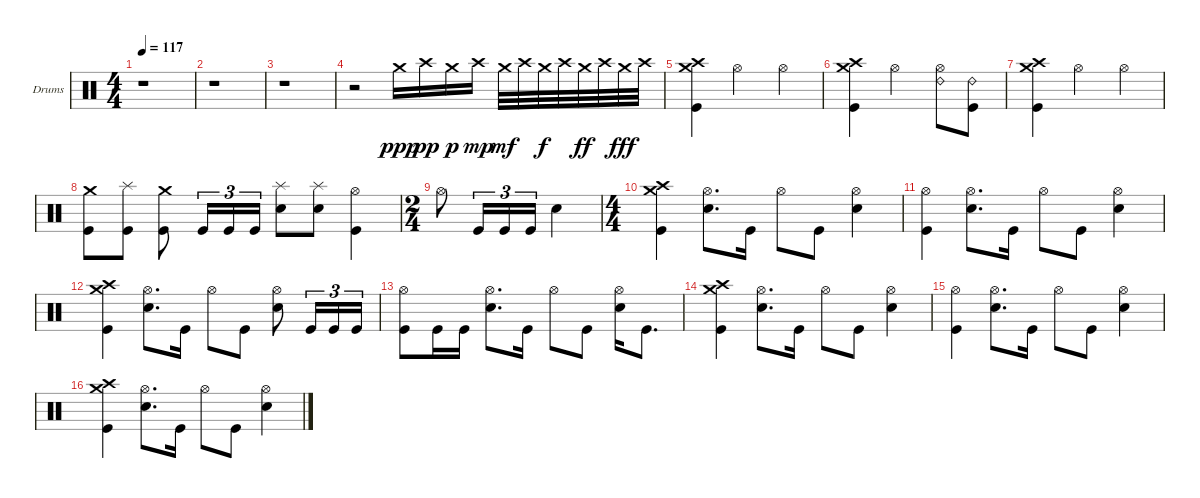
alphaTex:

\defaultSystemsLayout 4
\bracketExtendMode groupsimilarinstruments
\firstSystemTrackNameOrientation horizontal
\otherSystemsTrackNameOrientation horizontal
\track ("Drumkit" "Drums") {instrument percussion}
\staff {score}
\articulation defaults
\ts (4 4)
\tempo 117
\clef neutral
\scale
0.474178
\ks c
r.1{dy ppp} |
\scale
0.262911 r.1 |
\scale
0.262911 r.1 |
\scale
0.333333 r.2 "Crash medium (hit)".16 "Crash high (hit)".16{dy pp} "Crash medium (hit)".16{dy p} "Crash high (hit)".16{dy mp} "Crash medium (hit)".32{dy mf} "Crash high (hit)".32 "Crash medium (hit)".32{dy f} "Crash high (hit)".32 "Crash medium (hit)".32{dy ff} "Crash high (hit)".32 "Crash medium (hit)".32{dy fff} "Crash high (hit)".32 |
\scale
0.333333 ("Crash high (hit)" "Crash medium (hit)" "Kick (hit)").4 "Hi-Hat (open)".2 "Hi-Hat (open)".4 |
\scale
0.333333 ("Crash high (hit)" "Crash medium (hit)" "Kick (hit)").4 "Hi-Hat (open)".2 ("Hi-Hat (open)" "Ride (bell) 2").8 ("Ride (bell) 2" "Kick (hit)").8 |
\scale
0.262911 ("Crash high (hit)" "Crash medium (hit)" "Kick (hit)").4 "Hi-Hat (open)".2 "Hi-Hat (open)".4 |
\scale
0.262911 ("Crash medium (hit)" "Kick (hit)").8 ("Splash (hit)" "Kick (hit)").8 ("Crash medium (hit)" "Kick (hit)").8 "Kick (hit)".16{tu (3 2)} "Kick (hit)".16{tu (3 2)} "Kick (hit)".16{tu (3 2)} ("Splash (hit)" "Snare (hit) 2").8 ("Splash (hit)" "Snare (hit) 2").8 ("Hi-Hat (open)" "Kick (hit)").4 |
\ts (2 4)
\scale
0.474178 "Hi-Hat (open)".8 "Kick (hit)".16{tu (3 2)} "Kick (hit)".16{tu (3 2)} "Kick (hit)".16{tu (3 2)} "Snare (hit) 2".4 |
\ts (4 4)
\scale
0.474178 ("Crash high (hit)" "Crash medium (hit)" "Kick (hit)").4 ("Hi-Hat (open)" "Snare (hit) 2").8{d} "Kick (hit)".16 "Hi-Hat (open)".8 "Kick (hit)".8 ("Hi-Hat (open)" "Snare (hit) 2").4 |
\scale
0.262911 ("Hi-Hat (open)" "Kick (hit)").4 ("Hi-Hat (open)" "Snare (hit) 2").8{d} "Kick (hit)".16 "Hi-Hat (open)".8 "Kick (hit)".8 ("Hi-Hat (open)" "Snare (hit) 2").4 |
\scale
0.262911 ("Crash high (hit)" "Crash medium (hit)" "Kick (hit)").4 ("Hi-Hat (open)" "Snare (hit) 2").8{d} "Kick (hit)".16 "Hi-Hat (open)".8 "Kick (hit)".8 ("Hi-Hat (open)" "Snare (hit) 2").8 "Kick (hit)".16{tu (3 2)} "Kick (hit)".16{tu (3 2)} "Kick (hit)".16{tu (3 2)} |
\scale
0.333333 ("Hi-Hat (open)" "Kick (hit)").8 "Kick (hit)".16 "Kick (hit)".16 ("Hi-Hat (open)" "Snare (hit) 2").8{d} "Kick (hit)".16 "Hi-Hat (open)".8 "Kick (hit)".8 ("Hi-Hat (open)" "Snare (hit) 2").16 "Kick (hit)".8{d} |
\scale
0.333333 ("Crash high (hit)" "Crash medium (hit)" "Kick (hit)").4 ("Hi-Hat (open)" "Snare (hit) 2").8{d} "Kick (hit)".16 "Hi-Hat (open)".8 "Kick (hit)".8 ("Hi-Hat (open)" "Snare (hit) 2").4 |
\scale
0.333333 ("Hi-Hat (open)" "Kick (hit)").4 ("Hi-Hat (open)" "Snare (hit) 2").8{d} "Kick (hit)".16 "Hi-Hat (open)".8 "Kick (hit)".8 ("Hi-Hat (open)" "Snare (hit) 2").4 |
\scale
0.333333 ("Crash high (hit)" "Crash medium (hit)" "Kick (hit)").4 ("Hi-Hat (open)" "Snare (hit) 2").8{d} "Kick (hit)".16 "Hi-Hat (open)".8 "Kick (hit)".8 ("Hi-Hat (open)" "Snare (hit) 2").4
